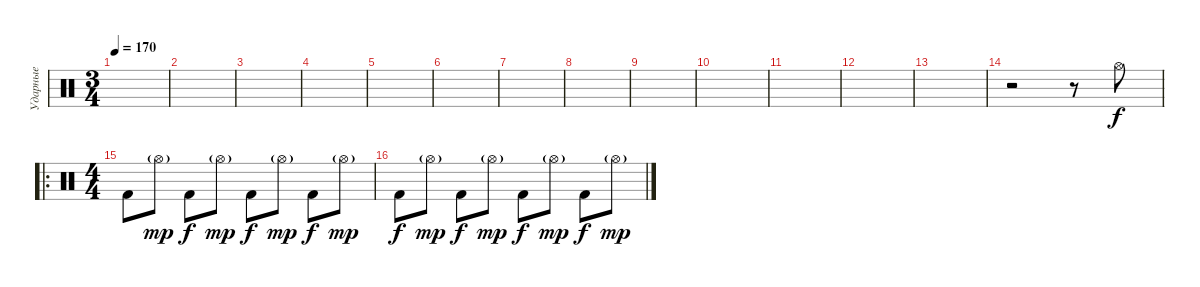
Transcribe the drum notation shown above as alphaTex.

\track ("Ударные" "Ударные") {instrument percussion}
\staff {score}
\articulation defaults
\ts (3 4)
\tempo 170
\clef neutral
\ks c
|
|
|
|
|
|
|
|
|
|
|
|
|
r.2 r.8 "Hi-Hat (open)".8 |
\ro
\ts (4 4)
"Kick (hit) 2".8{dy f} "Hi-Hat (open)"{g}.8{dy mp} "Kick (hit) 2".8{dy f} "Hi-Hat (open)"{g}.8{dy mp} "Kick (hit) 2".8{dy f} "Hi-Hat (open)"{g}.8{dy mp} "Kick (hit) 2".8{dy f} "Hi-Hat (open)"{g}.8{dy mp} |
"Kick (hit) 2".8{dy f} "Hi-Hat (open)"{g}.8{dy mp} "Kick (hit) 2".8{dy f} "Hi-Hat (open)"{g}.8{dy mp} "Kick (hit) 2".8{dy f} "Hi-Hat (open)"{g}.8{dy mp} "Kick (hit) 2".8{dy f} "Hi-Hat (open)"{g}.8{dy mp}
